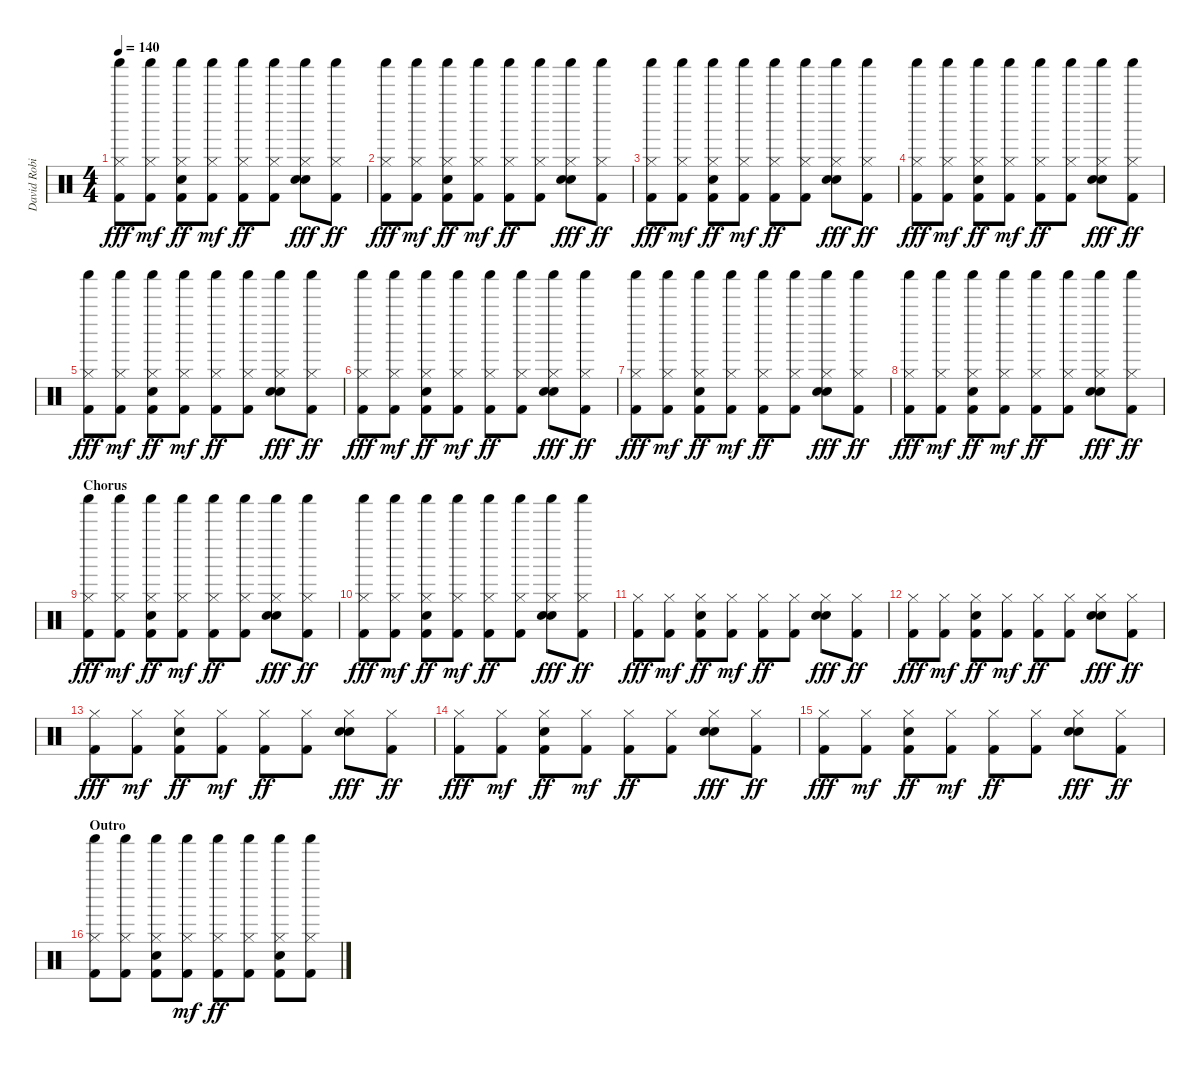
\track ("David Robinson" "David Robi") {instrument percussion}
\staff {score}
\articulation defaults
\ts (4 4)
\tempo 140
\clef neutral
\ks c
("Shaker (hit)" "Hi-Hat (closed)" "Kick (hit) 2").8{dy fff} ("Shaker (hit)" "Hi-Hat (closed)" "Kick (hit) 2").8{dy mf} ("Shaker (hit)" "Hi-Hat (closed)" "Electric Snare (hit)" "Kick (hit) 2").8{dy ff} ("Shaker (hit)" "Hi-Hat (closed)" "Kick (hit) 2").8{dy mf} ("Shaker (hit)" "Hi-Hat (closed)" "Kick (hit) 2").8{dy ff} ("Shaker (hit)" "Hi-Hat (closed)" "Kick (hit) 2").8 ("Shaker (hit)" "Hi-Hat (closed)" "Electric Snare (hit)" "Snare (hit) 2").8{dy fff} ("Shaker (hit)" "Hi-Hat (closed)" "Kick (hit) 2").8{dy ff} |
("Shaker (hit)" "Hi-Hat (closed)" "Kick (hit) 2").8{dy fff} ("Shaker (hit)" "Hi-Hat (closed)" "Kick (hit) 2").8{dy mf} ("Shaker (hit)" "Hi-Hat (closed)" "Electric Snare (hit)" "Kick (hit) 2").8{dy ff} ("Shaker (hit)" "Hi-Hat (closed)" "Kick (hit) 2").8{dy mf} ("Shaker (hit)" "Hi-Hat (closed)" "Kick (hit) 2").8{dy ff} ("Shaker (hit)" "Hi-Hat (closed)" "Kick (hit) 2").8 ("Shaker (hit)" "Hi-Hat (closed)" "Electric Snare (hit)" "Snare (hit) 2").8{dy fff} ("Shaker (hit)" "Hi-Hat (closed)" "Kick (hit) 2").8{dy ff} |
("Shaker (hit)" "Hi-Hat (closed)" "Kick (hit) 2").8{dy fff} ("Shaker (hit)" "Hi-Hat (closed)" "Kick (hit) 2").8{dy mf} ("Shaker (hit)" "Hi-Hat (closed)" "Electric Snare (hit)" "Kick (hit) 2").8{dy ff} ("Shaker (hit)" "Hi-Hat (closed)" "Kick (hit) 2").8{dy mf} ("Shaker (hit)" "Hi-Hat (closed)" "Kick (hit) 2").8{dy ff} ("Shaker (hit)" "Hi-Hat (closed)" "Kick (hit) 2").8 ("Shaker (hit)" "Hi-Hat (closed)" "Electric Snare (hit)" "Snare (hit) 2").8{dy fff} ("Shaker (hit)" "Hi-Hat (closed)" "Kick (hit) 2").8{dy ff} |
("Shaker (hit)" "Hi-Hat (closed)" "Kick (hit) 2").8{dy fff} ("Shaker (hit)" "Hi-Hat (closed)" "Kick (hit) 2").8{dy mf} ("Shaker (hit)" "Hi-Hat (closed)" "Electric Snare (hit)" "Kick (hit) 2").8{dy ff} ("Shaker (hit)" "Hi-Hat (closed)" "Kick (hit) 2").8{dy mf} ("Shaker (hit)" "Hi-Hat (closed)" "Kick (hit) 2").8{dy ff} ("Shaker (hit)" "Hi-Hat (closed)" "Kick (hit) 2").8 ("Shaker (hit)" "Hi-Hat (closed)" "Electric Snare (hit)" "Snare (hit) 2").8{dy fff} ("Shaker (hit)" "Hi-Hat (closed)" "Kick (hit) 2").8{dy ff} |
("Shaker (hit)" "Hi-Hat (closed)" "Kick (hit) 2").8{dy fff} ("Shaker (hit)" "Hi-Hat (closed)" "Kick (hit) 2").8{dy mf} ("Shaker (hit)" "Hi-Hat (closed)" "Electric Snare (hit)" "Kick (hit) 2").8{dy ff} ("Shaker (hit)" "Hi-Hat (closed)" "Kick (hit) 2").8{dy mf} ("Shaker (hit)" "Hi-Hat (closed)" "Kick (hit) 2").8{dy ff} ("Shaker (hit)" "Hi-Hat (closed)" "Kick (hit) 2").8 ("Shaker (hit)" "Hi-Hat (closed)" "Electric Snare (hit)" "Snare (hit) 2").8{dy fff} ("Shaker (hit)" "Hi-Hat (closed)" "Kick (hit) 2").8{dy ff} |
("Shaker (hit)" "Hi-Hat (closed)" "Kick (hit) 2").8{dy fff} ("Shaker (hit)" "Hi-Hat (closed)" "Kick (hit) 2").8{dy mf} ("Shaker (hit)" "Hi-Hat (closed)" "Electric Snare (hit)" "Kick (hit) 2").8{dy ff} ("Shaker (hit)" "Hi-Hat (closed)" "Kick (hit) 2").8{dy mf} ("Shaker (hit)" "Hi-Hat (closed)" "Kick (hit) 2").8{dy ff} ("Shaker (hit)" "Hi-Hat (closed)" "Kick (hit) 2").8 ("Shaker (hit)" "Hi-Hat (closed)" "Electric Snare (hit)" "Snare (hit) 2").8{dy fff} ("Shaker (hit)" "Hi-Hat (closed)" "Kick (hit) 2").8{dy ff} |
("Shaker (hit)" "Hi-Hat (closed)" "Kick (hit) 2").8{dy fff} ("Shaker (hit)" "Hi-Hat (closed)" "Kick (hit) 2").8{dy mf} ("Shaker (hit)" "Hi-Hat (closed)" "Electric Snare (hit)" "Kick (hit) 2").8{dy ff} ("Shaker (hit)" "Hi-Hat (closed)" "Kick (hit) 2").8{dy mf} ("Shaker (hit)" "Hi-Hat (closed)" "Kick (hit) 2").8{dy ff} ("Shaker (hit)" "Hi-Hat (closed)" "Kick (hit) 2").8 ("Shaker (hit)" "Hi-Hat (closed)" "Electric Snare (hit)" "Snare (hit) 2").8{dy fff} ("Shaker (hit)" "Hi-Hat (closed)" "Kick (hit) 2").8{dy ff} |
("Shaker (hit)" "Hi-Hat (closed)" "Kick (hit) 2").8{dy fff} ("Shaker (hit)" "Hi-Hat (closed)" "Kick (hit) 2").8{dy mf} ("Shaker (hit)" "Hi-Hat (closed)" "Electric Snare (hit)" "Kick (hit) 2").8{dy ff} ("Shaker (hit)" "Hi-Hat (closed)" "Kick (hit) 2").8{dy mf} ("Shaker (hit)" "Hi-Hat (closed)" "Kick (hit) 2").8{dy ff} ("Shaker (hit)" "Hi-Hat (closed)" "Kick (hit) 2").8 ("Shaker (hit)" "Hi-Hat (closed)" "Electric Snare (hit)" "Snare (hit) 2").8{dy fff} ("Shaker (hit)" "Hi-Hat (closed)" "Kick (hit) 2").8{dy ff} |
\section ("" "Chorus")
("Shaker (hit)" "Hi-Hat (closed)" "Kick (hit) 2").8{dy fff} ("Shaker (hit)" "Hi-Hat (closed)" "Kick (hit) 2").8{dy mf} ("Shaker (hit)" "Hi-Hat (closed)" "Electric Snare (hit)" "Kick (hit) 2").8{dy ff} ("Shaker (hit)" "Hi-Hat (closed)" "Kick (hit) 2").8{dy mf} ("Shaker (hit)" "Hi-Hat (closed)" "Kick (hit) 2").8{dy ff} ("Shaker (hit)" "Hi-Hat (closed)" "Kick (hit) 2").8 ("Shaker (hit)" "Hi-Hat (closed)" "Electric Snare (hit)" "Snare (hit) 2").8{dy fff} ("Shaker (hit)" "Hi-Hat (closed)" "Kick (hit) 2").8{dy ff} |
("Shaker (hit)" "Hi-Hat (closed)" "Kick (hit) 2").8{dy fff} ("Shaker (hit)" "Hi-Hat (closed)" "Kick (hit) 2").8{dy mf} ("Shaker (hit)" "Hi-Hat (closed)" "Electric Snare (hit)" "Kick (hit) 2").8{dy ff} ("Shaker (hit)" "Hi-Hat (closed)" "Kick (hit) 2").8{dy mf} ("Shaker (hit)" "Hi-Hat (closed)" "Kick (hit) 2").8{dy ff} ("Shaker (hit)" "Hi-Hat (closed)" "Kick (hit) 2").8 ("Shaker (hit)" "Hi-Hat (closed)" "Electric Snare (hit)" "Snare (hit) 2").8{dy fff} ("Shaker (hit)" "Hi-Hat (closed)" "Kick (hit) 2").8{dy ff} |
("Hi-Hat (closed)" "Kick (hit) 2").8{dy fff} ("Hi-Hat (closed)" "Kick (hit) 2").8{dy mf} ("Hi-Hat (closed)" "Electric Snare (hit)" "Kick (hit) 2").8{dy ff} ("Hi-Hat (closed)" "Kick (hit) 2").8{dy mf} ("Hi-Hat (closed)" "Kick (hit) 2").8{dy ff} ("Hi-Hat (closed)" "Kick (hit) 2").8 ("Hi-Hat (closed)" "Electric Snare (hit)" "Snare (hit) 2").8{dy fff} ("Hi-Hat (closed)" "Kick (hit) 2").8{dy ff} |
("Hi-Hat (closed)" "Kick (hit) 2").8{dy fff} ("Hi-Hat (closed)" "Kick (hit) 2").8{dy mf} ("Hi-Hat (closed)" "Electric Snare (hit)" "Kick (hit) 2").8{dy ff} ("Hi-Hat (closed)" "Kick (hit) 2").8{dy mf} ("Hi-Hat (closed)" "Kick (hit) 2").8{dy ff} ("Hi-Hat (closed)" "Kick (hit) 2").8 ("Hi-Hat (closed)" "Electric Snare (hit)" "Snare (hit) 2").8{dy fff} ("Hi-Hat (closed)" "Kick (hit) 2").8{dy ff} |
("Hi-Hat (closed)" "Kick (hit) 2").8{dy fff} ("Hi-Hat (closed)" "Kick (hit) 2").8{dy mf} ("Hi-Hat (closed)" "Electric Snare (hit)" "Kick (hit) 2").8{dy ff} ("Hi-Hat (closed)" "Kick (hit) 2").8{dy mf} ("Hi-Hat (closed)" "Kick (hit) 2").8{dy ff} ("Hi-Hat (closed)" "Kick (hit) 2").8 ("Hi-Hat (closed)" "Electric Snare (hit)" "Snare (hit) 2").8{dy fff} ("Hi-Hat (closed)" "Kick (hit) 2").8{dy ff} |
("Hi-Hat (closed)" "Kick (hit) 2").8{dy fff} ("Hi-Hat (closed)" "Kick (hit) 2").8{dy mf} ("Hi-Hat (closed)" "Electric Snare (hit)" "Kick (hit) 2").8{dy ff} ("Hi-Hat (closed)" "Kick (hit) 2").8{dy mf} ("Hi-Hat (closed)" "Kick (hit) 2").8{dy ff} ("Hi-Hat (closed)" "Kick (hit) 2").8 ("Hi-Hat (closed)" "Electric Snare (hit)" "Snare (hit) 2").8{dy fff} ("Hi-Hat (closed)" "Kick (hit) 2").8{dy ff} |
("Hi-Hat (closed)" "Kick (hit) 2").8{dy fff} ("Hi-Hat (closed)" "Kick (hit) 2").8{dy mf} ("Hi-Hat (closed)" "Electric Snare (hit)" "Kick (hit) 2").8{dy ff} ("Hi-Hat (closed)" "Kick (hit) 2").8{dy mf} ("Hi-Hat (closed)" "Kick (hit) 2").8{dy ff} ("Hi-Hat (closed)" "Kick (hit) 2").8 ("Hi-Hat (closed)" "Electric Snare (hit)" "Snare (hit) 2").8{dy fff} ("Hi-Hat (closed)" "Kick (hit) 2").8{dy ff} |
\section ("" "Outro")
("Shaker (hit)" "Hi-Hat (closed)" "Kick (hit) 2").8 ("Shaker (hit)" "Hi-Hat (closed)" "Kick (hit) 2").8 ("Shaker (hit)" "Hi-Hat (closed)" "Electric Snare (hit)" "Kick (hit) 2").8 ("Shaker (hit)" "Hi-Hat (closed)" "Kick (hit) 2").8{dy mf} ("Shaker (hit)" "Hi-Hat (closed)" "Kick (hit) 2").8{dy ff} ("Shaker (hit)" "Hi-Hat (closed)" "Kick (hit) 2").8 ("Shaker (hit)" "Hi-Hat (closed)" "Electric Snare (hit)" "Kick (hit) 2").8 ("Shaker (hit)" "Hi-Hat (closed)" "Kick (hit) 2").8
